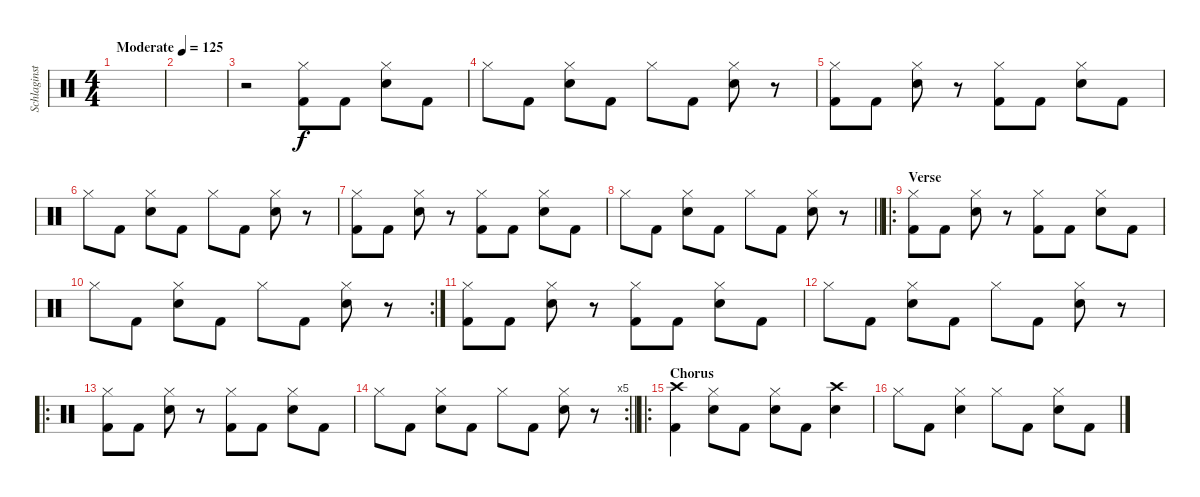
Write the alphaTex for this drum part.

\track ("Schlaginstrumente - Auswahl" "Schlaginst") {instrument percussion}
\staff {score}
\articulation defaults
\ts (4 4)
\tempo (125 "Moderate")
\clef neutral
\ks c
|
|
r.2 ("Hi-Hat (closed)" "Kick (hit) 2").8 "Kick (hit) 2".8 ("Hi-Hat (closed)" "Snare (hit) 2").8 "Kick (hit) 2".8 |
"Hi-Hat (closed)".8 "Kick (hit) 2".8 ("Hi-Hat (closed)" "Snare (hit) 2").8 "Kick (hit) 2".8 "Hi-Hat (closed)".8 "Kick (hit) 2".8 ("Hi-Hat (closed)" "Snare (hit) 2").8 r.8 |
("Hi-Hat (closed)" "Kick (hit) 2").8 "Kick (hit) 2".8 ("Hi-Hat (closed)" "Snare (hit) 2").8 r.8 ("Hi-Hat (closed)" "Kick (hit) 2").8 "Kick (hit) 2".8 ("Hi-Hat (closed)" "Snare (hit) 2").8 "Kick (hit) 2".8 |
"Hi-Hat (closed)".8 "Kick (hit) 2".8 ("Hi-Hat (closed)" "Snare (hit) 2").8 "Kick (hit) 2".8 "Hi-Hat (closed)".8 "Kick (hit) 2".8 ("Hi-Hat (closed)" "Snare (hit) 2").8 r.8 |
("Hi-Hat (closed)" "Kick (hit) 2").8 "Kick (hit) 2".8 ("Hi-Hat (closed)" "Snare (hit) 2").8 r.8 ("Hi-Hat (closed)" "Kick (hit) 2").8 "Kick (hit) 2".8 ("Hi-Hat (closed)" "Snare (hit) 2").8 "Kick (hit) 2".8 |
\barLineRight lightlight "Hi-Hat (closed)".8 "Kick (hit) 2".8
("Hi-Hat (closed)" "Snare (hit) 2").8 "Kick (hit) 2".8 "Hi-Hat (closed)".8 "Kick (hit) 2".8 ("Hi-Hat (closed)" "Snare (hit) 2").8 r.8 |
\ro
\section ("" "Verse")
("Hi-Hat (closed)" "Kick (hit) 2").8 "Kick (hit) 2".8 ("Hi-Hat (closed)" "Snare (hit) 2").8 r.8 ("Hi-Hat (closed)" "Kick (hit) 2").8 "Kick (hit) 2".8 ("Hi-Hat (closed)" "Snare (hit) 2").8 "Kick (hit) 2".8 |
\rc 2 "Hi-Hat (closed)".8 "Kick (hit) 2".8
("Hi-Hat (closed)" "Snare (hit) 2").8 "Kick (hit) 2".8 "Hi-Hat (closed)".8 "Kick (hit) 2".8 ("Hi-Hat (closed)" "Snare (hit) 2").8 r.8 |
("Hi-Hat (closed)" "Kick (hit) 2").8 "Kick (hit) 2".8 ("Hi-Hat (closed)" "Snare (hit) 2").8 r.8 ("Hi-Hat (closed)" "Kick (hit) 2").8 "Kick (hit) 2".8 ("Hi-Hat (closed)" "Snare (hit) 2").8 "Kick (hit) 2".8 |
"Hi-Hat (closed)".8 "Kick (hit) 2".8 ("Hi-Hat (closed)" "Snare (hit) 2").8 "Kick (hit) 2".8 "Hi-Hat (closed)".8 "Kick (hit) 2".8 ("Hi-Hat (closed)" "Snare (hit) 2").8 r.8 |
\ro
("Hi-Hat (closed)" "Kick (hit) 2").8 "Kick (hit) 2".8 ("Hi-Hat (closed)" "Snare (hit) 2").8 r.8 ("Hi-Hat (closed)" "Kick (hit) 2").8 "Kick (hit) 2".8 ("Hi-Hat (closed)" "Snare (hit) 2").8 "Kick (hit) 2".8 |
\rc 5
\barLineRight lightlight "Hi-Hat (closed)".8 "Kick (hit) 2".8
("Hi-Hat (closed)" "Snare (hit) 2").8 "Kick (hit) 2".8 "Hi-Hat (closed)".8 "Kick (hit) 2".8 ("Hi-Hat (closed)" "Snare (hit) 2").8 r.8 |
\ro
\section ("" "Chorus")
("Crash high (hit)" "Kick (hit) 2").4 ("Hi-Hat (closed)" "Snare (hit) 2").8 "Kick (hit) 2".8 ("Hi-Hat (closed)" "Snare (hit) 2").8 "Kick (hit) 2".8 ("Crash high (hit)" "Snare (hit) 2").4 |
"Hi-Hat (closed)".8 "Kick (hit) 2".8 ("Hi-Hat (closed)" "Snare (hit) 2").4 "Hi-Hat (closed)".8 "Kick (hit) 2".8 ("Hi-Hat (closed)" "Snare (hit) 2").8 "Kick (hit) 2".8
